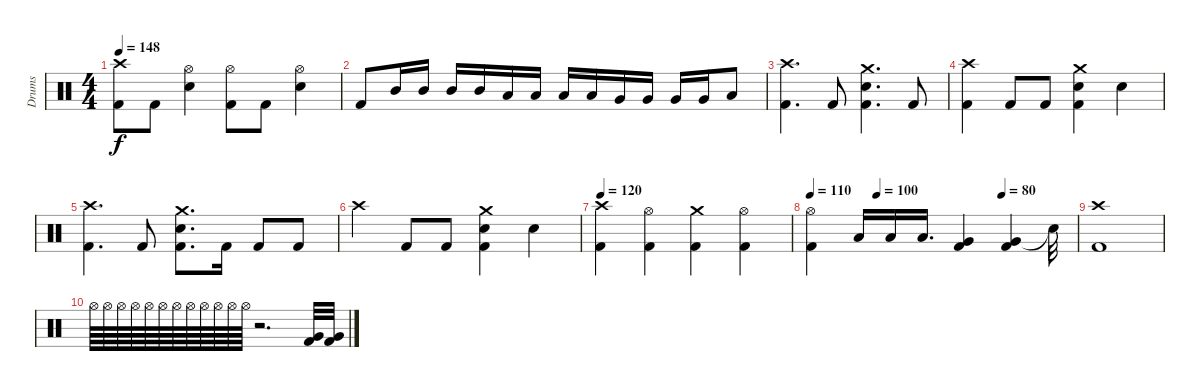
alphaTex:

\track ("Drums" "Drums") {instrument percussion}
\staff {score}
\articulation defaults
\ts (4 4)
\tempo 148
\clef neutral
\ks c
("Crash high (hit)" "Kick (hit) 2").8{dy f} "Kick (hit) 2".8 ("Hi-Hat (open)" "Snare (hit) 2").4 ("Hi-Hat (open)" "Kick (hit) 2").8 "Kick (hit) 2".8 ("Hi-Hat (open)" "Snare (hit) 2").4 |
"Kick (hit) 2".8 "Mid Tom (hit)".16 "Mid Tom (hit)".16 "Mid Tom (hit)".16 "Mid Tom (hit)".16 "Low Tom (hit)".16 "Low Tom (hit)".16 "Low Tom (hit)".16 "Low Tom (hit)".16 "Very Low Tom (hit)".16 "Very Low Tom (hit)".16 "Very Low Tom (hit)".16 "Very Low Tom (hit)".16 "Low Floor Tom (hit)".8 |
("Crash high (hit)" "Kick (hit) 2").4{d} "Kick (hit) 2".8 ("Crash medium (hit)" "Snare (hit) 2" "Kick (hit) 2").4{d} "Kick (hit) 2".8 |
("Crash high (hit)" "Kick (hit) 2").4 "Kick (hit) 2".8 "Kick (hit) 2".8 ("Crash medium (hit)" "Snare (hit) 2" "Kick (hit) 2").4 "Snare (hit) 2".4 |
("Crash high (hit)" "Kick (hit) 2").4{d} "Kick (hit) 2".8 ("Crash medium (hit)" "Snare (hit) 2" "Kick (hit) 2").8{d} "Kick (hit) 2".16 "Kick (hit) 2".8 "Kick (hit) 2".8 |
"Crash high (hit)".4 "Kick (hit) 2".8 "Kick (hit) 2".8 ("Crash medium (hit)" "Snare (hit) 2" "Kick (hit) 2").4 "Snare (hit) 2".4 |
\tempo 120
("Crash high (hit)" "Kick (hit) 2").4 ("Hi-Hat (open)" "Kick (hit) 2").4 ("Crash medium (hit)" "Kick (hit) 2").4 ("Hi-Hat (open)" "Kick (hit) 2").4 |
\tempo 110
\tempo (100 0.25)
\tempo (80 0.71875)
("Hi-Hat (open)" "Kick (hit) 2").4 "Low Tom (hit)".16 "Low Tom (hit)".16 "Low Tom (hit)".16{d} ("Very Low Tom (hit)" "Kick (hit) 2").4 ("Very Low Tom (hit)" "Kick (hit) 2").4 "Snare (hit)"{t}.32 |
("Crash high (hit)" "Kick (hit) 2").1 |
"Hi-Hat (open)".64 "Hi-Hat (open)".64 "Hi-Hat (open)".64 "Hi-Hat (open)".64 "Hi-Hat (open)".64 "Hi-Hat (open)".64 "Hi-Hat (open)".64 "Hi-Hat (open)".64 "Hi-Hat (open)".64 "Hi-Hat (open)".64 "Hi-Hat (open)".64 "Hi-Hat (open)".64 r.2{d} ("Very Low Tom (hit)" "Kick (hit) 2").32 ("Very Low Tom (hit)" "Kick (hit) 2").32
